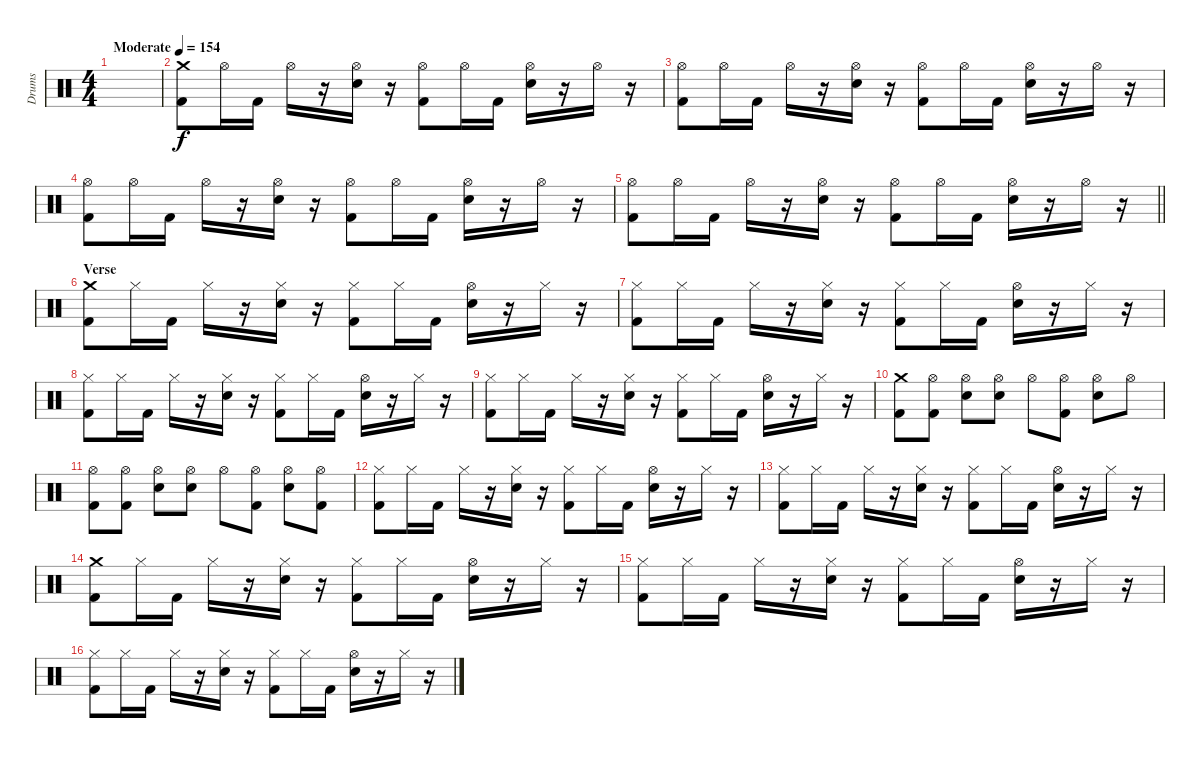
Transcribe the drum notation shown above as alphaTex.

\track ("Drums" "Drums") {instrument percussion}
\staff {score}
\articulation defaults
\ts (4 4)
\tempo (154 "Moderate")
\clef neutral
\ks c
|
("Kick (hit) 2" "Crash medium (hit)").8 "Hi-Hat (open)".16 "Kick (hit) 2".16 "Hi-Hat (open)".16 r.16 ("Electric Snare (hit)" "Hi-Hat (open)").16 r.16 ("Kick (hit) 2" "Hi-Hat (open)").8 "Hi-Hat (open)".16 "Kick (hit) 2".16 ("Electric Snare (hit)" "Hi-Hat (open)").16 r.16 "Hi-Hat (open)".16 r.16 |
("Kick (hit) 2" "Hi-Hat (open)").8 "Hi-Hat (open)".16 "Kick (hit) 2".16 "Hi-Hat (open)".16 r.16 ("Electric Snare (hit)" "Hi-Hat (open)").16 r.16 ("Kick (hit) 2" "Hi-Hat (open)").8 "Hi-Hat (open)".16 "Kick (hit) 2".16 ("Electric Snare (hit)" "Hi-Hat (open)").16 r.16 "Hi-Hat (open)".16 r.16 |
("Kick (hit) 2" "Hi-Hat (open)").8 "Hi-Hat (open)".16 "Kick (hit) 2".16 "Hi-Hat (open)".16 r.16 ("Electric Snare (hit)" "Hi-Hat (open)").16 r.16 ("Kick (hit) 2" "Hi-Hat (open)").8 "Hi-Hat (open)".16 "Kick (hit) 2".16 ("Electric Snare (hit)" "Hi-Hat (open)").16 r.16 "Hi-Hat (open)".16 r.16 |
\barLineRight lightlight
("Kick (hit) 2" "Hi-Hat (open)").8 "Hi-Hat (open)".16 "Kick (hit) 2".16 "Hi-Hat (open)".16 r.16 ("Electric Snare (hit)" "Hi-Hat (open)").16 r.16 ("Kick (hit) 2" "Hi-Hat (open)").8 "Hi-Hat (open)".16 "Kick (hit) 2".16 ("Electric Snare (hit)" "Hi-Hat (open)").16 r.16 "Hi-Hat (open)".16 r.16 |
\section ("" "Verse")
("Kick (hit) 2" "Crash medium (hit)").8 "Hi-Hat (closed)".16 "Kick (hit) 2".16 "Hi-Hat (closed)".16 r.16 ("Electric Snare (hit)" "Hi-Hat (closed)").16 r.16 ("Kick (hit) 2" "Hi-Hat (closed)").8 "Hi-Hat (closed)".16 "Kick (hit) 2".16 ("Electric Snare (hit)" "Hi-Hat (open)").16 r.16 "Hi-Hat (closed)".16 r.16 |
("Kick (hit) 2" "Hi-Hat (closed)").8 "Hi-Hat (closed)".16 "Kick (hit) 2".16 "Hi-Hat (closed)".16 r.16 ("Electric Snare (hit)" "Hi-Hat (closed)").16 r.16 ("Kick (hit) 2" "Hi-Hat (closed)").8 "Hi-Hat (closed)".16 "Kick (hit) 2".16 ("Electric Snare (hit)" "Hi-Hat (open)").16 r.16 "Hi-Hat (closed)".16 r.16 |
("Kick (hit) 2" "Hi-Hat (closed)").8 "Hi-Hat (closed)".16 "Kick (hit) 2".16 "Hi-Hat (closed)".16 r.16 ("Electric Snare (hit)" "Hi-Hat (closed)").16 r.16 ("Kick (hit) 2" "Hi-Hat (closed)").8 "Hi-Hat (closed)".16 "Kick (hit) 2".16 ("Electric Snare (hit)" "Hi-Hat (open)").16 r.16 "Hi-Hat (closed)".16 r.16 |
("Kick (hit) 2" "Hi-Hat (closed)").8 "Hi-Hat (closed)".16 "Kick (hit) 2".16 "Hi-Hat (closed)".16 r.16 ("Electric Snare (hit)" "Hi-Hat (closed)").16 r.16 ("Kick (hit) 2" "Hi-Hat (closed)").8 "Hi-Hat (closed)".16 "Kick (hit) 2".16 ("Electric Snare (hit)" "Hi-Hat (open)").16 r.16 "Hi-Hat (closed)".16 r.16 |
("Kick (hit) 2" "Crash medium (hit)").8 ("Kick (hit) 2" "Hi-Hat (open)").8 ("Electric Snare (hit)" "Hi-Hat (open)").8 ("Electric Snare (hit)" "Hi-Hat (open)").8 "Hi-Hat (open)".8 ("Kick (hit) 2" "Hi-Hat (open)").8 ("Electric Snare (hit)" "Hi-Hat (open)").8 "Hi-Hat (open)".8 |
("Kick (hit) 2" "Hi-Hat (open)").8 ("Kick (hit) 2" "Hi-Hat (open)").8 ("Electric Snare (hit)" "Hi-Hat (open)").8 ("Electric Snare (hit)" "Hi-Hat (open)").8 "Hi-Hat (open)".8 ("Kick (hit) 2" "Hi-Hat (open)").8 ("Electric Snare (hit)" "Hi-Hat (open)").8 ("Kick (hit) 2" "Hi-Hat (open)").8 |
("Kick (hit) 2" "Hi-Hat (closed)").8 "Hi-Hat (closed)".16 "Kick (hit) 2".16 "Hi-Hat (closed)".16 r.16 ("Electric Snare (hit)" "Hi-Hat (closed)").16 r.16 ("Kick (hit) 2" "Hi-Hat (closed)").8 "Hi-Hat (closed)".16 "Kick (hit) 2".16 ("Electric Snare (hit)" "Hi-Hat (open)").16 r.16 "Hi-Hat (closed)".16 r.16 |
("Kick (hit) 2" "Hi-Hat (closed)").8 "Hi-Hat (closed)".16 "Kick (hit) 2".16 "Hi-Hat (closed)".16 r.16 ("Electric Snare (hit)" "Hi-Hat (closed)").16 r.16 ("Kick (hit) 2" "Hi-Hat (closed)").8 "Hi-Hat (closed)".16 "Kick (hit) 2".16 ("Electric Snare (hit)" "Hi-Hat (open)").16 r.16 "Hi-Hat (closed)".16 r.16 |
("Kick (hit) 2" "Crash medium (hit)").8 "Hi-Hat (closed)".16 "Kick (hit) 2".16 "Hi-Hat (closed)".16 r.16 ("Electric Snare (hit)" "Hi-Hat (closed)").16 r.16 ("Kick (hit) 2" "Hi-Hat (closed)").8 "Hi-Hat (closed)".16 "Kick (hit) 2".16 ("Electric Snare (hit)" "Hi-Hat (open)").16 r.16 "Hi-Hat (closed)".16 r.16 |
("Kick (hit) 2" "Hi-Hat (closed)").8 "Hi-Hat (closed)".16 "Kick (hit) 2".16 "Hi-Hat (closed)".16 r.16 ("Electric Snare (hit)" "Hi-Hat (closed)").16 r.16 ("Kick (hit) 2" "Hi-Hat (closed)").8 "Hi-Hat (closed)".16 "Kick (hit) 2".16 ("Electric Snare (hit)" "Hi-Hat (open)").16 r.16 "Hi-Hat (closed)".16 r.16 |
("Kick (hit) 2" "Hi-Hat (closed)").8 "Hi-Hat (closed)".16 "Kick (hit) 2".16 "Hi-Hat (closed)".16 r.16 ("Electric Snare (hit)" "Hi-Hat (closed)").16 r.16 ("Kick (hit) 2" "Hi-Hat (closed)").8 "Hi-Hat (closed)".16 "Kick (hit) 2".16 ("Electric Snare (hit)" "Hi-Hat (open)").16 r.16 "Hi-Hat (closed)".16 r.16
